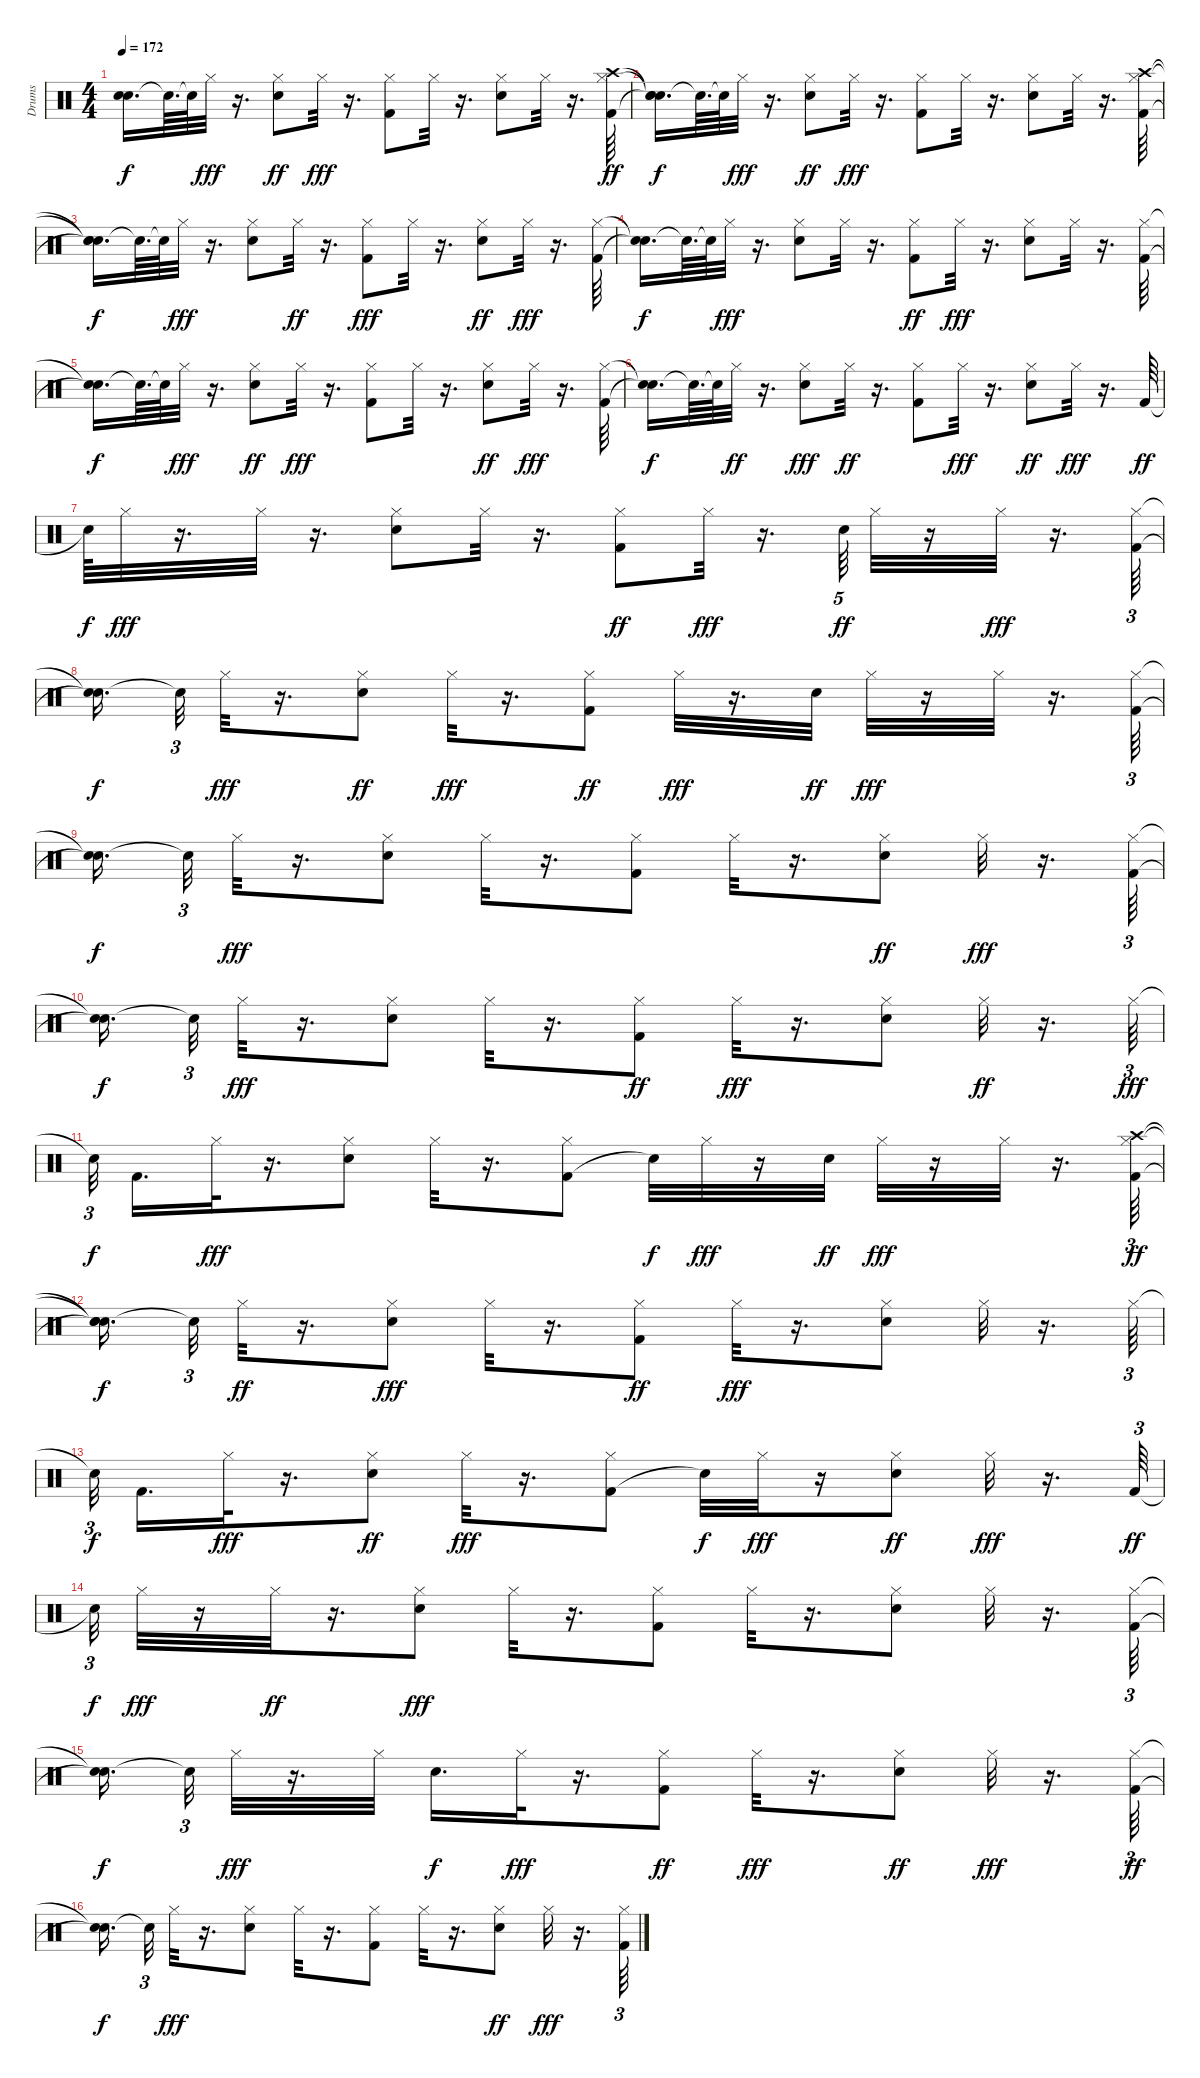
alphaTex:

\track ("Drums" "Drums") {instrument percussion}
\staff {score}
\articulation defaults
\ts (4 4)
\tempo 172
\clef neutral
\ks c
("Snare (hit)"{t} "Snare (hit)"{t}).16{d dy f} "Snare (hit)"{t}.64{d} "Snare (hit)"{t}.64 "Hi-Hat (closed)".32{dy fff} r.16{d} ("Electric Snare (hit)" "Hi-Hat (closed)").8{dy ff} "Hi-Hat (closed)".32{dy fff} r.16{d} ("Kick (hit) 2" "Hi-Hat (closed)").8 "Hi-Hat (closed)".32 r.16{d} ("Electric Snare (hit)" "Hi-Hat (closed)").8 "Hi-Hat (closed)".32 r.16{d} ("Hi-Hat (closed)" "Crash high (hit)" "Kick (hit) 2").64{dy ff} |
("Snare (hit)"{t} "Snare (hit)"{t} "Snare (hit)"{t}).16{d dy f} "Snare (hit)"{t}.64{d} "Snare (hit)"{t}.64 "Hi-Hat (closed)".32{dy fff} r.16{d} ("Hi-Hat (closed)" "Electric Snare (hit)").8{dy ff} "Hi-Hat (closed)".32{dy fff} r.16{d} ("Hi-Hat (closed)" "Kick (hit) 2").8 "Hi-Hat (closed)".32 r.16{d} ("Electric Snare (hit)" "Hi-Hat (closed)").8 "Hi-Hat (closed)".32 r.16{d} ("Kick (hit) 2" "Crash high (hit)" "Hi-Hat (closed)").64 |
("Snare (hit)"{t} "Snare (hit)"{t} "Snare (hit)"{t}).16{d dy f} "Snare (hit)"{t}.64{d} "Snare (hit)"{t}.64 "Hi-Hat (closed)".32{dy fff} r.16{d} ("Electric Snare (hit)" "Hi-Hat (closed)").8 "Hi-Hat (closed)".32{dy ff} r.16{d} ("Kick (hit) 2" "Hi-Hat (closed)").8{dy fff} "Hi-Hat (closed)".32 r.16{d} ("Hi-Hat (closed)" "Electric Snare (hit)").8{dy ff} "Hi-Hat (closed)".32{dy fff} r.16{d} ("Kick (hit) 2" "Hi-Hat (closed)").64 |
("Snare (hit)"{t} "Snare (hit)"{t}).16{d dy f} "Snare (hit)"{t}.64{d} "Snare (hit)"{t}.64 "Hi-Hat (closed)".32{dy fff} r.16{d} ("Electric Snare (hit)" "Hi-Hat (closed)").8 "Hi-Hat (closed)".32 r.16{d} ("Hi-Hat (closed)" "Kick (hit) 2").8{dy ff} "Hi-Hat (closed)".32{dy fff} r.16{d} ("Electric Snare (hit)" "Hi-Hat (closed)").8 "Hi-Hat (closed)".32 r.16{d} ("Kick (hit) 2" "Hi-Hat (closed)").64 |
("Snare (hit)"{t} "Snare (hit)"{t}).16{d dy f} "Snare (hit)"{t}.64{d} "Snare (hit)"{t}.64 "Hi-Hat (closed)".32{dy fff} r.16{d} ("Hi-Hat (closed)" "Electric Snare (hit)").8{dy ff} "Hi-Hat (closed)".32{dy fff} r.16{d} ("Kick (hit) 2" "Hi-Hat (closed)").8 "Hi-Hat (closed)".32 r.16{d} ("Hi-Hat (closed)" "Electric Snare (hit)").8{dy ff} "Hi-Hat (closed)".32{dy fff} r.16{d} ("Kick (hit) 2" "Hi-Hat (closed)").64 |
("Snare (hit)"{t} "Snare (hit)"{t}).16{d dy f} "Snare (hit)"{t}.64{d} "Snare (hit)"{t}.64 "Hi-Hat (closed)".32{dy ff} r.16{d} ("Electric Snare (hit)" "Hi-Hat (closed)").8{dy fff} "Hi-Hat (closed)".32{dy ff} r.16{d} ("Hi-Hat (closed)" "Kick (hit) 2").8 "Hi-Hat (closed)".32{dy fff} r.16{d} ("Hi-Hat (closed)" "Electric Snare (hit)").8{dy ff} "Hi-Hat (closed)".32{dy fff} r.16{d} "Kick (hit) 2".64{dy ff} |
"Snare (hit)"{t}.64{dy f} "Hi-Hat (closed)".32{dy fff} r.16{d} "Hi-Hat (closed)".32 r.16{d} ("Electric Snare (hit)" "Hi-Hat (closed)").8 "Hi-Hat (closed)".32 r.16{d} ("Hi-Hat (closed)" "Kick (hit) 2").8{dy ff} "Hi-Hat (closed)".32{dy fff} r.16{d} "Electric Snare (hit)".64{tu (5 4) dy ff} "Hi-Hat (closed)".32 r.16 "Hi-Hat (closed)".32{dy fff} r.16{d} ("Kick (hit) 2" "Hi-Hat (closed)").64{tu (3 2)} |
("Snare (hit)"{t} "Snare (hit)"{t}).16{d dy f beam splitsecondary} "Snare (hit)"{t}.32{tu (3 2)} "Hi-Hat (closed)".32{dy fff} r.16{d} ("Hi-Hat (closed)" "Electric Snare (hit)").8{dy ff} "Hi-Hat (closed)".32{dy fff} r.16{d} ("Hi-Hat (closed)" "Kick (hit) 2").8{dy ff} "Hi-Hat (closed)".32{dy fff} r.16{d} "Electric Snare (hit)".32{dy ff} "Hi-Hat (closed)".32{dy fff} r.16 "Hi-Hat (closed)".32 r.16{d} ("Hi-Hat (closed)" "Kick (hit) 2").64{tu (3 2)} |
("Snare (hit)"{t} "Snare (hit)"{t}).16{d dy f beam splitsecondary} "Snare (hit)"{t}.32{tu (3 2)} "Hi-Hat (closed)".32{dy fff} r.16{d} ("Electric Snare (hit)" "Hi-Hat (closed)").8 "Hi-Hat (closed)".32 r.16{d} ("Kick (hit) 2" "Hi-Hat (closed)").8 "Hi-Hat (closed)".32 r.16{d} ("Hi-Hat (closed)" "Electric Snare (hit)").8{dy ff} "Hi-Hat (closed)".32{dy fff} r.16{d} ("Kick (hit) 2" "Hi-Hat (closed)").64{tu (3 2)} |
("Snare (hit)"{t} "Snare (hit)"{t}).16{d dy f beam splitsecondary} "Snare (hit)"{t}.32{tu (3 2)} "Hi-Hat (closed)".32{dy fff} r.16{d} ("Hi-Hat (closed)" "Electric Snare (hit)").8 "Hi-Hat (closed)".32 r.16{d} ("Kick (hit) 2" "Hi-Hat (closed)").8{dy ff} "Hi-Hat (closed)".32{dy fff} r.16{d} ("Electric Snare (hit)" "Hi-Hat (closed)").8 "Hi-Hat (closed)".32{dy ff} r.16{d} "Hi-Hat (closed)".64{tu (3 2) dy fff} |
"Snare (hit)"{t}.32{tu (3 2) dy f beam splitsecondary} "Kick (hit) 2".16{d} "Hi-Hat (closed)".32{dy fff} r.16{d} ("Electric Snare (hit)" "Hi-Hat (closed)").8 "Hi-Hat (closed)".32 r.16{d} ("Kick (hit) 2" "Hi-Hat (closed)").8 "Snare (hit)"{t}.32{dy f} "Hi-Hat (closed)".32{dy fff} r.16 "Electric Snare (hit)".32{dy ff} "Hi-Hat (closed)".32{dy fff} r.16 "Hi-Hat (closed)".32 r.16{d} ("Crash high (hit)" "Hi-Hat (closed)" "Kick (hit) 2").64{tu (3 2) dy ff} |
("Snare (hit)"{t} "Snare (hit)"{t} "Snare (hit)"{t}).16{d dy f beam splitsecondary} "Snare (hit)"{t}.32{tu (3 2)} "Hi-Hat (closed)".32{dy ff} r.16{d} ("Hi-Hat (closed)" "Electric Snare (hit)").8{dy fff} "Hi-Hat (closed)".32 r.16{d} ("Hi-Hat (closed)" "Kick (hit) 2").8{dy ff} "Hi-Hat (closed)".32{dy fff} r.16{d} ("Electric Snare (hit)" "Hi-Hat (closed)").8 "Hi-Hat (closed)".32 r.16{d} "Hi-Hat (closed)".64{tu (3 2)} |
"Snare (hit)"{t}.32{tu (3 2) dy f beam splitsecondary} "Kick (hit) 2".16{d} "Hi-Hat (closed)".32{dy fff} r.16{d} ("Hi-Hat (closed)" "Electric Snare (hit)").8{dy ff} "Hi-Hat (closed)".32{dy fff} r.16{d} ("Kick (hit) 2" "Hi-Hat (closed)").8 "Snare (hit)"{t}.32{dy f} "Hi-Hat (closed)".32{dy fff} r.16 ("Electric Snare (hit)" "Hi-Hat (closed)").8{dy ff} "Hi-Hat (closed)".32{dy fff} r.16{d} "Kick (hit) 2".64{tu (3 2) dy ff} |
"Snare (hit)"{t}.32{tu (3 2) dy f} "Hi-Hat (closed)".32{dy fff} r.16 "Hi-Hat (closed)".32{dy ff} r.16{d} ("Electric Snare (hit)" "Hi-Hat (closed)").8{dy fff} "Hi-Hat (closed)".32 r.16{d} ("Kick (hit) 2" "Hi-Hat (closed)").8 "Hi-Hat (closed)".32 r.16{d} ("Electric Snare (hit)" "Hi-Hat (closed)").8 "Hi-Hat (closed)".32 r.16{d} ("Hi-Hat (closed)" "Kick (hit) 2").64{tu (3 2)} |
("Snare (hit)"{t} "Snare (hit)"{t}).16{d dy f beam splitsecondary} "Snare (hit)"{t}.32{tu (3 2)} "Hi-Hat (closed)".32{dy fff} r.16{d} "Hi-Hat (closed)".32 "Electric Snare (hit)".16{d dy f} "Hi-Hat (closed)".32{dy fff} r.16{d} ("Hi-Hat (closed)" "Kick (hit) 2").8{dy ff} "Hi-Hat (closed)".32{dy fff} r.16{d} ("Hi-Hat (closed)" "Electric Snare (hit)").8{dy ff} "Hi-Hat (closed)".32{dy fff} r.16{d} ("Hi-Hat (closed)" "Kick (hit) 2").64{tu (3 2) dy ff} |
("Snare (hit)"{t} "Snare (hit)"{t}).16{d dy f beam splitsecondary} "Snare (hit)"{t}.32{tu (3 2)} "Hi-Hat (closed)".32{dy fff} r.16{d} ("Electric Snare (hit)" "Hi-Hat (closed)").8 "Hi-Hat (closed)".32 r.16{d} ("Hi-Hat (closed)" "Kick (hit) 2").8 "Hi-Hat (closed)".32 r.16{d} ("Hi-Hat (closed)" "Electric Snare (hit)").8{dy ff} "Hi-Hat (closed)".32{dy fff} r.16{d} ("Kick (hit) 2" "Hi-Hat (closed)").64{tu (3 2)}
